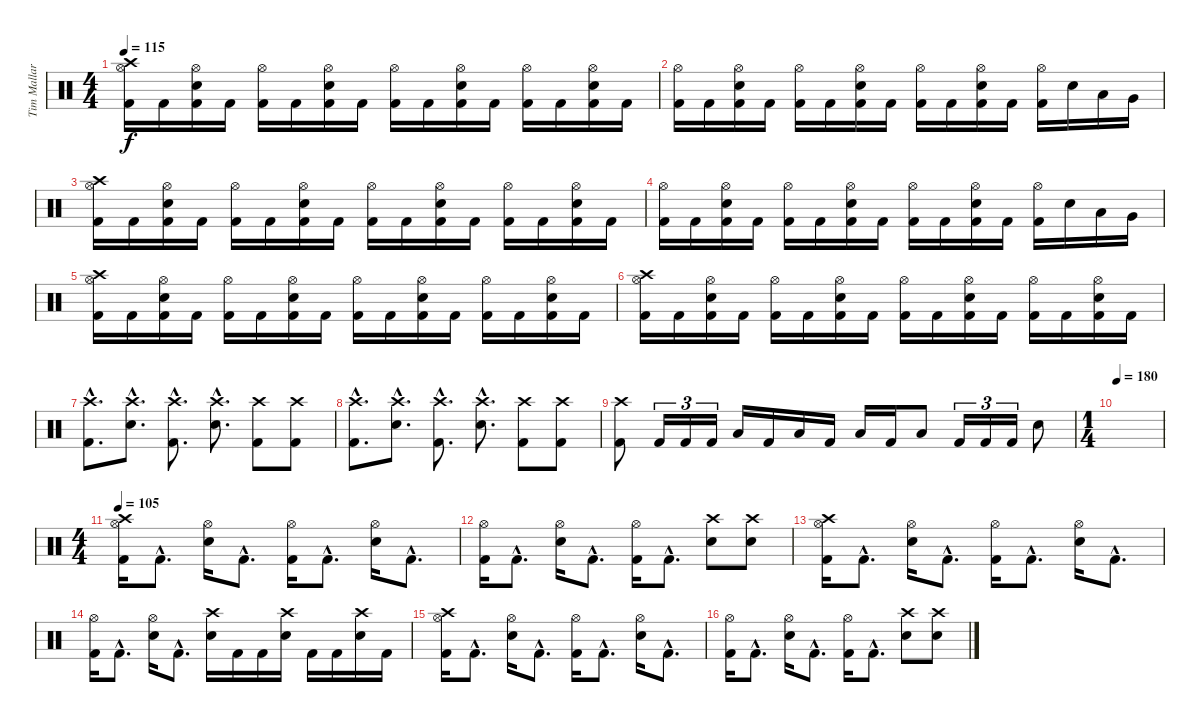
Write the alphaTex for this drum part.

\track ("Tim Mallare" "Tim Mallar") {instrument percussion}
\staff {score}
\articulation defaults
\ts (4 4)
\tempo 115
\clef neutral
\ks c
("Crash high (hit)" "Hi-Hat (open)" "Kick (hit) 2").16{dy f} "Kick (hit) 2".16 ("Hi-Hat (open)" "Electric Snare (hit)" "Kick (hit) 2").16 "Kick (hit) 2".16 ("Hi-Hat (open)" "Kick (hit) 2").16 "Kick (hit) 2".16 ("Hi-Hat (open)" "Electric Snare (hit)" "Kick (hit) 2").16 "Kick (hit) 2".16 ("Hi-Hat (open)" "Kick (hit) 2").16 "Kick (hit) 2".16 ("Hi-Hat (open)" "Electric Snare (hit)" "Kick (hit) 2").16 "Kick (hit) 2".16 ("Hi-Hat (open)" "Kick (hit) 2").16 "Kick (hit) 2".16 ("Hi-Hat (open)" "Electric Snare (hit)" "Kick (hit) 2").16 "Kick (hit) 2".16 |
("Hi-Hat (open)" "Kick (hit) 2").16 "Kick (hit) 2".16 ("Hi-Hat (open)" "Electric Snare (hit)" "Kick (hit) 2").16 "Kick (hit) 2".16 ("Hi-Hat (open)" "Kick (hit) 2").16 "Kick (hit) 2".16 ("Hi-Hat (open)" "Electric Snare (hit)" "Kick (hit) 2").16 "Kick (hit) 2".16 ("Hi-Hat (open)" "Kick (hit) 2").16 "Kick (hit) 2".16 ("Hi-Hat (open)" "Electric Snare (hit)" "Kick (hit) 2").16 "Kick (hit) 2".16 ("Hi-Hat (open)" "Kick (hit) 2").16 "Electric Snare (hit)".16 "Low Tom (hit)".16 "Very Low Tom (hit)".16 |
("Crash high (hit)" "Hi-Hat (open)" "Kick (hit) 2").16 "Kick (hit) 2".16 ("Hi-Hat (open)" "Electric Snare (hit)" "Kick (hit) 2").16 "Kick (hit) 2".16 ("Hi-Hat (open)" "Kick (hit) 2").16 "Kick (hit) 2".16 ("Hi-Hat (open)" "Electric Snare (hit)" "Kick (hit) 2").16 "Kick (hit) 2".16 ("Hi-Hat (open)" "Kick (hit) 2").16 "Kick (hit) 2".16 ("Hi-Hat (open)" "Electric Snare (hit)" "Kick (hit) 2").16 "Kick (hit) 2".16 ("Hi-Hat (open)" "Kick (hit) 2").16 "Kick (hit) 2".16 ("Hi-Hat (open)" "Electric Snare (hit)" "Kick (hit) 2").16 "Kick (hit) 2".16 |
("Hi-Hat (open)" "Kick (hit) 2").16 "Kick (hit) 2".16 ("Hi-Hat (open)" "Electric Snare (hit)" "Kick (hit) 2").16 "Kick (hit) 2".16 ("Hi-Hat (open)" "Kick (hit) 2").16 "Kick (hit) 2".16 ("Hi-Hat (open)" "Electric Snare (hit)" "Kick (hit) 2").16 "Kick (hit) 2".16 ("Hi-Hat (open)" "Kick (hit) 2").16 "Kick (hit) 2".16 ("Hi-Hat (open)" "Electric Snare (hit)" "Kick (hit) 2").16 "Kick (hit) 2".16 ("Hi-Hat (open)" "Kick (hit) 2").16 "Electric Snare (hit)".16 "Low Tom (hit)".16 "Very Low Tom (hit)".16 |
("Crash high (hit)" "Hi-Hat (open)" "Kick (hit) 2").16 "Kick (hit) 2".16 ("Hi-Hat (open)" "Electric Snare (hit)" "Kick (hit) 2").16 "Kick (hit) 2".16 ("Hi-Hat (open)" "Kick (hit) 2").16 "Kick (hit) 2".16 ("Hi-Hat (open)" "Electric Snare (hit)" "Kick (hit) 2").16 "Kick (hit) 2".16 ("Hi-Hat (open)" "Kick (hit) 2").16 "Kick (hit) 2".16 ("Hi-Hat (open)" "Electric Snare (hit)" "Kick (hit) 2").16 "Kick (hit) 2".16 ("Hi-Hat (open)" "Kick (hit) 2").16 "Kick (hit) 2".16 ("Hi-Hat (open)" "Electric Snare (hit)" "Kick (hit) 2").16 "Kick (hit) 2".16 |
("Crash high (hit)" "Hi-Hat (open)" "Kick (hit) 2").16 "Kick (hit) 2".16 ("Hi-Hat (open)" "Electric Snare (hit)" "Kick (hit) 2").16 "Kick (hit) 2".16 ("Hi-Hat (open)" "Kick (hit) 2").16 "Kick (hit) 2".16 ("Hi-Hat (open)" "Electric Snare (hit)" "Kick (hit) 2").16 "Kick (hit) 2".16 ("Hi-Hat (open)" "Kick (hit) 2").16 "Kick (hit) 2".16 ("Hi-Hat (open)" "Electric Snare (hit)" "Kick (hit) 2").16 "Kick (hit) 2".16 ("Hi-Hat (open)" "Kick (hit) 2").16 "Kick (hit) 2".16 ("Hi-Hat (open)" "Electric Snare (hit)" "Kick (hit) 2").16 "Kick (hit) 2".16 |
("Crash high (hit)"{hac} "Kick (hit) 2"{hac}).8{d} ("Crash high (hit)"{hac} "Electric Snare (hit)"{hac}).8{d} ("Crash high (hit)"{hac} "Kick (hit) 2"{hac}).8{d} ("Crash high (hit)"{hac} "Electric Snare (hit)"{hac}).8{d} ("Crash high (hit)" "Kick (hit) 2").8 ("Crash high (hit)" "Kick (hit) 2").8 |
("Crash high (hit)"{hac} "Kick (hit) 2"{hac}).8{d} ("Crash high (hit)"{hac} "Electric Snare (hit)"{hac}).8{d} ("Crash high (hit)"{hac} "Kick (hit) 2"{hac}).8{d} ("Crash high (hit)"{hac} "Electric Snare (hit)"{hac}).8{d} ("Crash high (hit)" "Kick (hit) 2").8 ("Crash high (hit)" "Kick (hit) 2").8 |
("Crash high (hit)" "Kick (hit) 2").8 "Kick (hit) 2".16{tu (3 2)} "Kick (hit) 2".16{tu (3 2)} "Kick (hit) 2".16{tu (3 2)} "Low Floor Tom (hit)".16 "Kick (hit) 2".16 "Low Floor Tom (hit)".16 "Kick (hit) 2".16 "Low Floor Tom (hit)".16 "Kick (hit) 2".16 "Low Floor Tom (hit)".8 "Kick (hit) 2".16{tu (3 2)} "Kick (hit) 2".16{tu (3 2)} "Kick (hit) 2".16{tu (3 2)} "Electric Snare (hit)".8 |
\ts (1 4)
\tempo 180
|
\ts (4 4)
\tempo 105
("Crash high (hit)" "Hi-Hat (open)" "Kick (hit) 2").16 "Kick (hit) 2"{hac}.8{d} ("Hi-Hat (open)" "Electric Snare (hit)").16 "Kick (hit) 2"{hac}.8{d} ("Hi-Hat (open)" "Kick (hit) 2").16 "Kick (hit) 2"{hac}.8{d} ("Hi-Hat (open)" "Electric Snare (hit)").16 "Kick (hit) 2"{hac}.8{d} |
("Hi-Hat (open)" "Kick (hit) 2").16 "Kick (hit) 2"{hac}.8{d} ("Hi-Hat (open)" "Electric Snare (hit)").16 "Kick (hit) 2"{hac}.8{d} ("Hi-Hat (open)" "Kick (hit) 2").16 "Kick (hit) 2"{hac}.8{d} ("Crash high (hit)" "Electric Snare (hit)").8 ("Crash high (hit)" "Electric Snare (hit)").8 |
("Crash high (hit)" "Hi-Hat (open)" "Kick (hit) 2").16 "Kick (hit) 2"{hac}.8{d} ("Hi-Hat (open)" "Electric Snare (hit)").16 "Kick (hit) 2"{hac}.8{d} ("Hi-Hat (open)" "Kick (hit) 2").16 "Kick (hit) 2"{hac}.8{d} ("Hi-Hat (open)" "Electric Snare (hit)").16 "Kick (hit) 2"{hac}.8{d} |
("Hi-Hat (open)" "Kick (hit) 2").16 "Kick (hit) 2"{hac}.8{d} ("Hi-Hat (open)" "Electric Snare (hit)").16 "Kick (hit) 2"{hac}.8{d} ("Crash high (hit)" "Electric Snare (hit)").16 "Kick (hit) 2".16 "Kick (hit) 2".16 ("Crash high (hit)" "Electric Snare (hit)").16 "Kick (hit) 2".16 "Kick (hit) 2".16 ("Crash high (hit)" "Electric Snare (hit)").16 "Kick (hit) 2".16 |
("Crash high (hit)" "Hi-Hat (open)" "Kick (hit) 2").16 "Kick (hit) 2"{hac}.8{d} ("Hi-Hat (open)" "Electric Snare (hit)").16 "Kick (hit) 2"{hac}.8{d} ("Hi-Hat (open)" "Kick (hit) 2").16 "Kick (hit) 2"{hac}.8{d} ("Hi-Hat (open)" "Electric Snare (hit)").16 "Kick (hit) 2"{hac}.8{d} |
("Hi-Hat (open)" "Kick (hit) 2").16 "Kick (hit) 2"{hac}.8{d} ("Hi-Hat (open)" "Electric Snare (hit)").16 "Kick (hit) 2"{hac}.8{d} ("Hi-Hat (open)" "Kick (hit) 2").16 "Kick (hit) 2"{hac}.8{d} ("Crash high (hit)" "Electric Snare (hit)").8 ("Crash high (hit)" "Electric Snare (hit)").8
